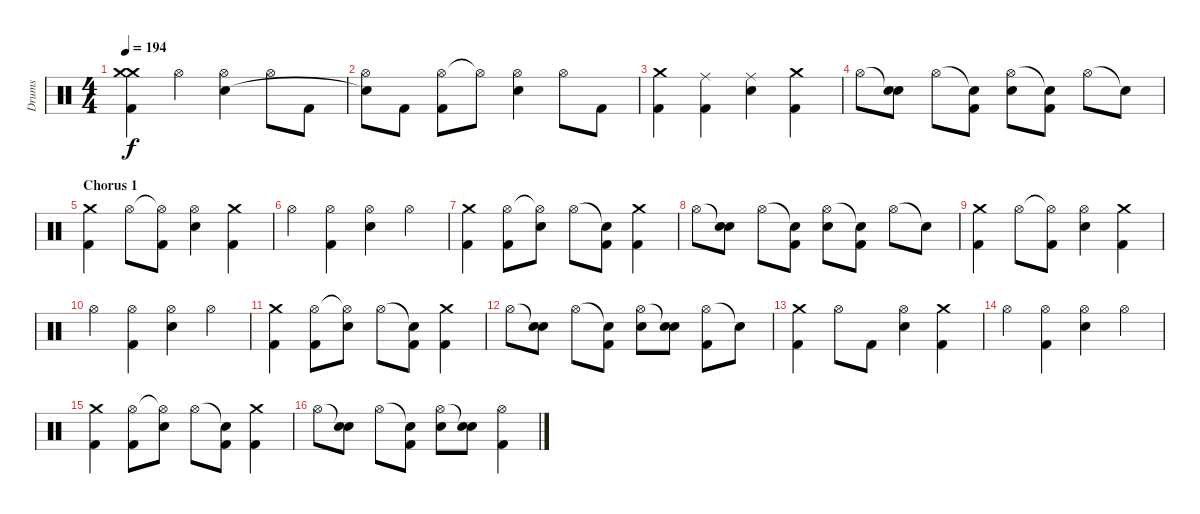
\track ("Drums" "Drums") {instrument percussion}
\staff {score}
\articulation defaults
\ts (4 4)
\tempo 194
\clef neutral
\ks c
("Crash medium (hit)" "Crash medium (hit)" "Kick (hit) 2").4{dy f} "Hi-Hat (open)".4 ("Hi-Hat (open)" "Snare (hit) 2").4 "Hi-Hat (open)".8 "Kick (hit) 2".8 |
("Hi-Hat (open)" "Snare (hit)"{t}).8 "Kick (hit) 2".8 ("Hi-Hat (open)" "Kick (hit) 2").8 "Hi-Hat (open)"{t}.8 ("Hi-Hat (open)" "Snare (hit) 2").4 "Hi-Hat (open)".8 "Kick (hit) 2".8 |
("Crash medium (hit)" "Kick (hit) 2").4 ("Ride (middle)" "Kick (hit) 2").4 ("Ride (middle)" "Snare (hit) 2").4 ("Crash medium (hit)" "Kick (hit) 2").4 |
"Hi-Hat (open)".8 ("Snare (hit)"{t} "Snare (hit) 2").8 "Hi-Hat (open)".8 ("Snare (hit)"{t} "Kick (hit) 2").8 ("Hi-Hat (open)" "Snare (hit) 2").8 ("Snare (hit)"{t} "Kick (hit) 2").8 "Hi-Hat (open)".8 "Snare (hit)"{t}.8 |
\section ("" "Chorus 1")
("Crash medium (hit)" "Kick (hit) 2").4 "Hi-Hat (open)".8 ("Hi-Hat (open)"{t} "Kick (hit) 2").8 ("Hi-Hat (open)" "Snare (hit) 2").4 ("Crash medium (hit)" "Kick (hit) 2").4 |
"Hi-Hat (open)".4 ("Hi-Hat (open)" "Kick (hit) 2").4 ("Hi-Hat (open)" "Snare (hit) 2").4 "Hi-Hat (open)".4 |
("Crash medium (hit)" "Kick (hit) 2").4 ("Hi-Hat (open)" "Kick (hit) 2").8 ("Hi-Hat (open)"{t} "Snare (hit) 2").8 "Hi-Hat (open)".8 ("Snare (hit)"{t} "Kick (hit) 2").8 ("Crash medium (hit)" "Kick (hit) 2").4 |
"Hi-Hat (open)".8 ("Snare (hit)"{t} "Snare (hit) 2").8 "Hi-Hat (open)".8 ("Snare (hit)"{t} "Kick (hit) 2").8 ("Hi-Hat (open)" "Snare (hit) 2").8 ("Snare (hit)"{t} "Kick (hit) 2").8 "Hi-Hat (open)".8 "Snare (hit)"{t}.8 |
("Crash medium (hit)" "Kick (hit) 2").4 "Hi-Hat (open)".8 ("Hi-Hat (open)"{t} "Kick (hit) 2").8 ("Hi-Hat (open)" "Snare (hit) 2").4 ("Crash medium (hit)" "Kick (hit) 2").4 |
"Hi-Hat (open)".4 ("Hi-Hat (open)" "Kick (hit) 2").4 ("Hi-Hat (open)" "Snare (hit) 2").4 "Hi-Hat (open)".4 |
("Crash medium (hit)" "Kick (hit) 2").4 ("Hi-Hat (open)" "Kick (hit) 2").8 ("Hi-Hat (open)"{t} "Snare (hit) 2").8 "Hi-Hat (open)".8 ("Snare (hit)"{t} "Kick (hit) 2").8 ("Crash medium (hit)" "Kick (hit) 2").4 |
"Hi-Hat (open)".8 ("Snare (hit)"{t} "Snare (hit) 2").8 "Hi-Hat (open)".8 ("Snare (hit)"{t} "Kick (hit) 2").8 ("Hi-Hat (open)" "Snare (hit) 2").8 ("Snare (hit)"{t} "Snare (hit) 2").8 ("Hi-Hat (open)" "Kick (hit) 2").8 "Snare (hit)"{t}.8 |
("Crash medium (hit)" "Kick (hit) 2").4 "Hi-Hat (open)".8 "Kick (hit) 2".8 ("Hi-Hat (open)" "Snare (hit) 2").4 ("Crash medium (hit)" "Kick (hit) 2").4 |
"Hi-Hat (open)".4 ("Hi-Hat (open)" "Kick (hit) 2").4 ("Hi-Hat (open)" "Snare (hit) 2").4 "Hi-Hat (open)".4 |
("Crash medium (hit)" "Kick (hit) 2").4 ("Hi-Hat (open)" "Kick (hit) 2").8 ("Hi-Hat (open)"{t} "Snare (hit) 2").8 "Hi-Hat (open)".8 ("Snare (hit)"{t} "Kick (hit) 2").8 ("Crash medium (hit)" "Kick (hit) 2").4 |
"Hi-Hat (open)".8 ("Snare (hit)"{t} "Snare (hit) 2").8 "Hi-Hat (open)".8 ("Snare (hit)"{t} "Kick (hit) 2").8 ("Hi-Hat (open)" "Snare (hit) 2").8 ("Snare (hit)"{t} "Snare (hit) 2").8 ("Hi-Hat (open)" "Kick (hit) 2").4
